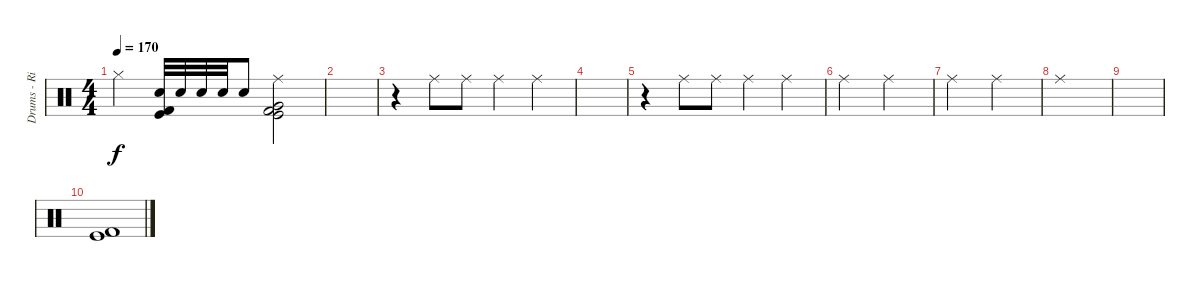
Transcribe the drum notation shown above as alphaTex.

\track ("Drums - Ringo Starr" "Drums - Ri") {instrument percussion}
\staff {score}
\articulation defaults
\ts (4 4)
\tempo 170
\clef neutral
\ks c "Hi-Hat (closed)".4{dy f}
("Snare (hit) 2" "Kick (hit)" "Kick (hit) 2").32 "Snare (hit) 2".32 "Snare (hit) 2".32 "Snare (hit) 2".32 "Snare (hit) 2".8 ("Kick (hit)" "Kick (hit) 2" "Very Low Tom (hit)" "Ride (middle)").2 |
|
r.4 "Ride (middle)".8 "Ride (middle)".8 "Ride (middle)".4 "Ride (middle)".4 |
|
r.4 "Ride (middle)".8 "Ride (middle)".8 "Ride (middle)".4 "Ride (middle)".4 |
"Ride (middle)".2 "Ride (middle)".2 |
"Ride (middle)".2 "Ride (middle)".2 |
"Ride (middle)".1 |
|
("Kick (hit)" "Kick (hit) 2").1
